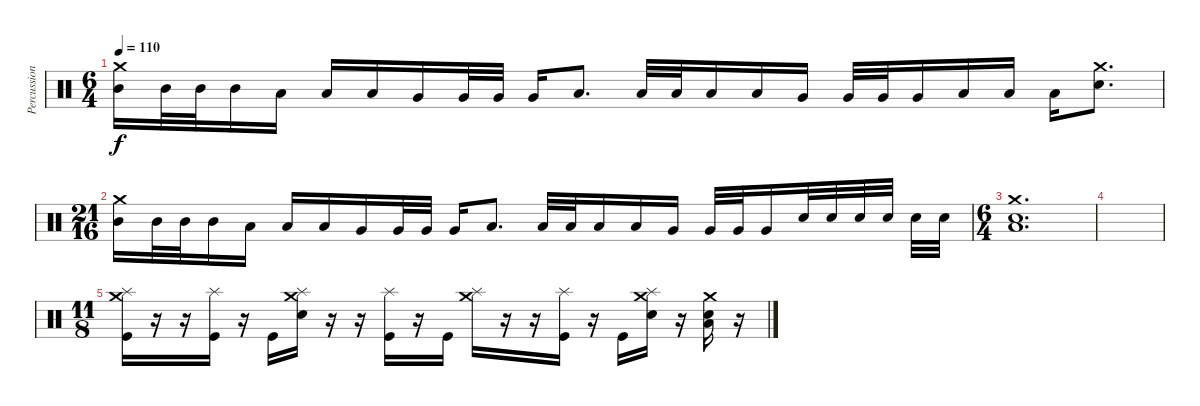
\track ("Percussion" "Percussion") {instrument percussion}
\staff {score}
\articulation defaults
\ts (6 4)
\tempo 110
\clef neutral
\ks c
("Crash medium (hit)" "Mid Tom (hit)").16{dy f} "Mid Tom (hit)".32 "Mid Tom (hit)".32 "Mid Tom (hit)".16 "Low Tom (hit)".16 "Low Tom (hit)".16 "Low Tom (hit)".16 "Very Low Tom (hit)".16 "Very Low Tom (hit)".32 "Very Low Tom (hit)".32 "Very Low Tom (hit)".16 "Low Floor Tom (hit)".8{d} "Low Floor Tom (hit)".32 "Low Floor Tom (hit)".32 "Low Floor Tom (hit)".16 "Low Floor Tom (hit)".16 "Very Low Tom (hit)".16 "Very Low Tom (hit)".32 "Very Low Tom (hit)".32 "Very Low Tom (hit)".16 "Low Tom (hit)".16 "Low Tom (hit)".16 "Low Tom (hit)".16 ("Crash medium (hit)" "Electric Snare (hit)").8{d} |
\ts (21 16)
("Crash medium (hit)" "Mid Tom (hit)").16 "Mid Tom (hit)".32 "Mid Tom (hit)".32 "Mid Tom (hit)".16 "Low Tom (hit)".16 "Low Tom (hit)".16 "Low Tom (hit)".16 "Very Low Tom (hit)".16 "Very Low Tom (hit)".32 "Very Low Tom (hit)".32 "Very Low Tom (hit)".16 "Low Floor Tom (hit)".8{d} "Low Floor Tom (hit)".32 "Low Floor Tom (hit)".32 "Low Floor Tom (hit)".16 "Low Floor Tom (hit)".16 "Very Low Tom (hit)".16 "Very Low Tom (hit)".32 "Very Low Tom (hit)".32 "Very Low Tom (hit)".16 "Electric Snare (hit)".32 "Electric Snare (hit)".32 "Electric Snare (hit)".32 "Electric Snare (hit)".32 "Electric Snare (hit)".32 "Electric Snare (hit)".32 |
\ts (6 4)
("Crash medium (hit)" "Electric Snare (hit)" "Low Floor Tom (hit)").1{d} |
|
\ts (11 8)
("Splash (hit)" "Crash medium (hit)" "Kick (hit)").16 r.16 r.16 ("Splash (hit)" "Kick (hit)").16 r.16 "Kick (hit)".16 ("Splash (hit)" "Crash medium (hit)" "Electric Snare (hit)").16 r.16 r.16 ("Splash (hit)" "Kick (hit)").16 r.16 "Kick (hit)".16 ("Splash (hit)" "Crash medium (hit)").16 r.16 r.16 ("Splash (hit)" "Kick (hit)").16 r.16 "Kick (hit)".16 ("Splash (hit)" "Crash medium (hit)" "Electric Snare (hit)").16 r.16 ("Crash medium (hit)" "Electric Snare (hit)" "Low Floor Tom (hit)").16 r.16
